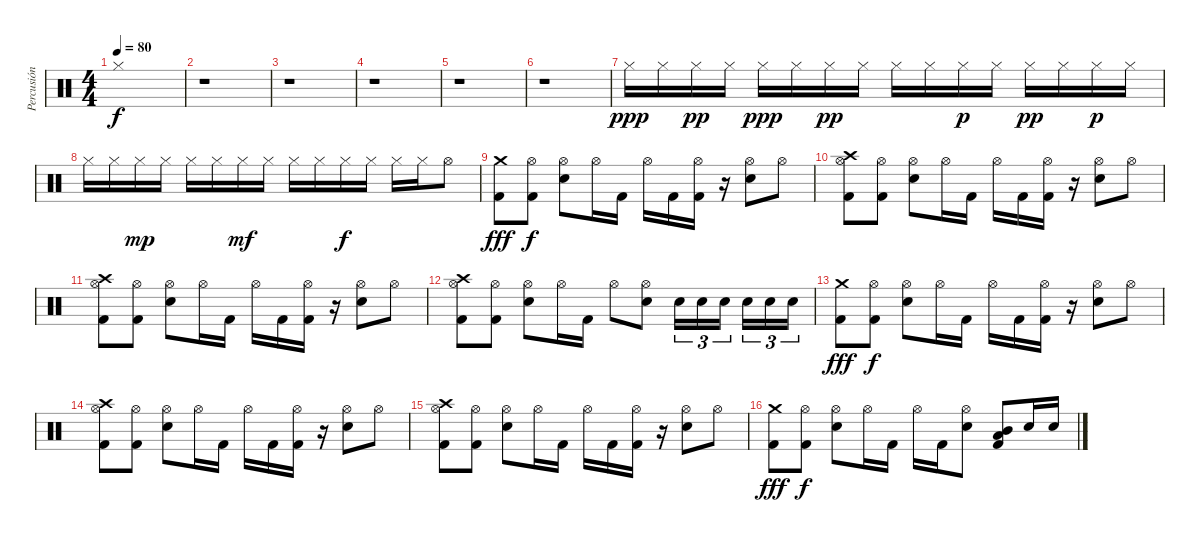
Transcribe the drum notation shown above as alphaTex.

\track ("Percusión" "Percusión") {instrument percussion}
\staff {score}
\articulation defaults
\ts (4 4)
\tempo 80
\clef neutral
\ks c "Hi-Hat (closed)".1{dy f}
|
r.1 |
r.1 |
r.1 |
r.1 |
r.1 |
"Hi-Hat (closed)".16{dy ppp} "Hi-Hat (closed)".16 "Hi-Hat (closed)".16{dy pp} "Hi-Hat (closed)".16 "Hi-Hat (closed)".16{dy ppp} "Hi-Hat (closed)".16 "Hi-Hat (closed)".16{dy pp} "Hi-Hat (closed)".16 "Hi-Hat (closed)".16 "Hi-Hat (closed)".16 "Hi-Hat (closed)".16{dy p} "Hi-Hat (closed)".16 "Hi-Hat (closed)".16{dy pp} "Hi-Hat (closed)".16 "Hi-Hat (closed)".16{dy p} "Hi-Hat (closed)".16 |
"Hi-Hat (closed)".16 "Hi-Hat (closed)".16 "Hi-Hat (closed)".16{dy mp} "Hi-Hat (closed)".16 "Hi-Hat (closed)".16 "Hi-Hat (closed)".16 "Hi-Hat (closed)".16{dy mf} "Hi-Hat (closed)".16 "Hi-Hat (closed)".16 "Hi-Hat (closed)".16 "Hi-Hat (closed)".16{dy f} "Hi-Hat (closed)".16 "Hi-Hat (closed)".16 "Hi-Hat (closed)".16 "Hi-Hat (open)".8 |
("Crash medium (hit)" "Kick (hit) 2").8{dy fff} ("Hi-Hat (open)" "Kick (hit) 2").8{dy f} ("Hi-Hat (open)" "Electric Snare (hit)").8 "Hi-Hat (open)".16 "Kick (hit) 2".16 "Hi-Hat (open)".16 "Kick (hit) 2".16 ("Hi-Hat (open)" "Kick (hit) 2").16 r.16 ("Hi-Hat (open)" "Electric Snare (hit)").8 "Hi-Hat (open)".8 |
("Crash high (hit)" "Hi-Hat (open)" "Kick (hit) 2").8 ("Hi-Hat (open)" "Kick (hit) 2").8 ("Hi-Hat (open)" "Electric Snare (hit)").8 "Hi-Hat (open)".16 "Kick (hit) 2".16 "Hi-Hat (open)".16 "Kick (hit) 2".16 ("Hi-Hat (open)" "Kick (hit) 2").16 r.16 ("Hi-Hat (open)" "Electric Snare (hit)").8 "Hi-Hat (open)".8 |
("Crash high (hit)" "Hi-Hat (open)" "Kick (hit) 2").8 ("Hi-Hat (open)" "Kick (hit) 2").8 ("Hi-Hat (open)" "Electric Snare (hit)").8 "Hi-Hat (open)".16 "Kick (hit) 2".16 "Hi-Hat (open)".16 "Kick (hit) 2".16 ("Hi-Hat (open)" "Kick (hit) 2").16 r.16 ("Hi-Hat (open)" "Electric Snare (hit)").8 "Hi-Hat (open)".8 |
("Crash high (hit)" "Hi-Hat (open)" "Kick (hit) 2").8 ("Hi-Hat (open)" "Kick (hit) 2").8 ("Hi-Hat (open)" "Electric Snare (hit)").8 "Hi-Hat (open)".16 "Kick (hit) 2".16 "Hi-Hat (open)".8 ("Hi-Hat (open)" "Electric Snare (hit)").8 "Electric Snare (hit)".16{tu (3 2)} "Electric Snare (hit)".16{tu (3 2)} "Electric Snare (hit)".16{tu (3 2)} "Electric Snare (hit)".16{tu (3 2)} "Electric Snare (hit)".16{tu (3 2)} "Electric Snare (hit)".16{tu (3 2)} |
("Crash medium (hit)" "Kick (hit) 2").8{dy fff} ("Hi-Hat (open)" "Kick (hit) 2").8{dy f} ("Hi-Hat (open)" "Electric Snare (hit)").8 "Hi-Hat (open)".16 "Kick (hit) 2".16 "Hi-Hat (open)".16 "Kick (hit) 2".16 ("Hi-Hat (open)" "Kick (hit) 2").16 r.16 ("Hi-Hat (open)" "Electric Snare (hit)").8 "Hi-Hat (open)".8 |
("Crash high (hit)" "Hi-Hat (open)" "Kick (hit) 2").8 ("Hi-Hat (open)" "Kick (hit) 2").8 ("Hi-Hat (open)" "Electric Snare (hit)").8 "Hi-Hat (open)".16 "Kick (hit) 2".16 "Hi-Hat (open)".16 "Kick (hit) 2".16 ("Hi-Hat (open)" "Kick (hit) 2").16 r.16 ("Hi-Hat (open)" "Electric Snare (hit)").8 "Hi-Hat (open)".8 |
("Crash high (hit)" "Hi-Hat (open)" "Kick (hit) 2").8 ("Hi-Hat (open)" "Kick (hit) 2").8 ("Hi-Hat (open)" "Electric Snare (hit)").8 "Hi-Hat (open)".16 "Kick (hit) 2".16 "Hi-Hat (open)".16 "Kick (hit) 2".16 ("Hi-Hat (open)" "Kick (hit) 2").16 r.16 ("Hi-Hat (open)" "Electric Snare (hit)").8 "Hi-Hat (open)".8 |
("Crash medium (hit)" "Kick (hit) 2").8{dy fff} ("Hi-Hat (open)" "Kick (hit) 2").8{dy f} ("Hi-Hat (open)" "Electric Snare (hit)").8 "Hi-Hat (open)".16 "Kick (hit) 2".16 "Hi-Hat (open)".16 "Kick (hit) 2".16 ("Hi-Hat (open)" "Electric Snare (hit)").8 ("Mid Tom (hit)" "Low Tom (hit)" "Kick (hit) 2").8 "Electric Snare (hit)".16 "Electric Snare (hit)".16
